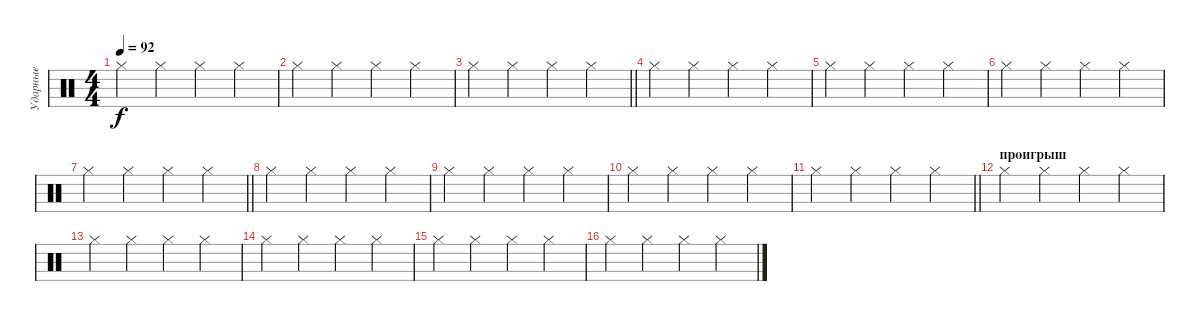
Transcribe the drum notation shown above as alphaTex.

\track ("Ударные" "Ударные") {instrument percussion}
\staff {score}
\articulation defaults
\ts (4 4)
\tempo 92
\clef neutral
\ks c "Hi-Hat (closed)".4{dy f} "Hi-Hat (closed)".4 "Hi-Hat (closed)".4 "Hi-Hat (closed)".4
|
"Hi-Hat (closed)".4 "Hi-Hat (closed)".4 "Hi-Hat (closed)".4 "Hi-Hat (closed)".4 |
\barLineRight lightlight "Hi-Hat (closed)".4 "Hi-Hat (closed)".4 "Hi-Hat (closed)".4 "Hi-Hat (closed)".4
|
"Hi-Hat (closed)".4 "Hi-Hat (closed)".4 "Hi-Hat (closed)".4 "Hi-Hat (closed)".4 |
"Hi-Hat (closed)".4 "Hi-Hat (closed)".4 "Hi-Hat (closed)".4 "Hi-Hat (closed)".4 |
"Hi-Hat (closed)".4 "Hi-Hat (closed)".4 "Hi-Hat (closed)".4 "Hi-Hat (closed)".4 |
\barLineRight lightlight "Hi-Hat (closed)".4 "Hi-Hat (closed)".4 "Hi-Hat (closed)".4 "Hi-Hat (closed)".4
|
"Hi-Hat (closed)".4 "Hi-Hat (closed)".4 "Hi-Hat (closed)".4 "Hi-Hat (closed)".4 |
"Hi-Hat (closed)".4 "Hi-Hat (closed)".4 "Hi-Hat (closed)".4 "Hi-Hat (closed)".4 |
"Hi-Hat (closed)".4 "Hi-Hat (closed)".4 "Hi-Hat (closed)".4 "Hi-Hat (closed)".4 |
\barLineRight lightlight "Hi-Hat (closed)".4 "Hi-Hat (closed)".4 "Hi-Hat (closed)".4 "Hi-Hat (closed)".4
|
\section ("" "проигрыш")
"Hi-Hat (closed)".4 "Hi-Hat (closed)".4 "Hi-Hat (closed)".4 "Hi-Hat (closed)".4 |
"Hi-Hat (closed)".4 "Hi-Hat (closed)".4 "Hi-Hat (closed)".4 "Hi-Hat (closed)".4 |
"Hi-Hat (closed)".4 "Hi-Hat (closed)".4 "Hi-Hat (closed)".4 "Hi-Hat (closed)".4 |
"Hi-Hat (closed)".4 "Hi-Hat (closed)".4 "Hi-Hat (closed)".4 "Hi-Hat (closed)".4 |
"Hi-Hat (closed)".4 "Hi-Hat (closed)".4 "Hi-Hat (closed)".4 "Hi-Hat (closed)".4
